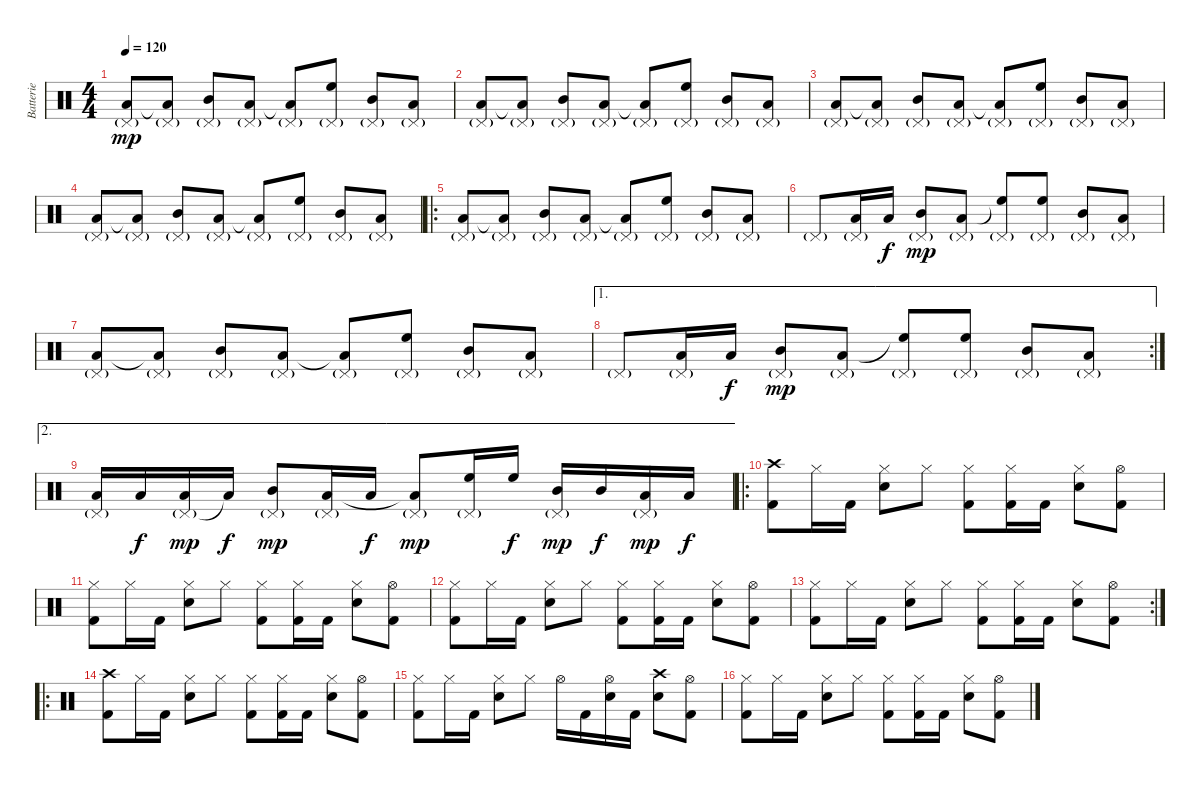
\track ("Batterie" "Batterie") {instrument percussion}
\staff {score}
\articulation defaults
\ts (4 4)
\tempo 120
\clef neutral
\ks c
("Pedal Hi-Hat (hit)"{g} "Low Tom (hit)").8{dy mp} ("Pedal Hi-Hat (hit)"{g} "Low Tom (hit)"{t}).8 ("Pedal Hi-Hat (hit)"{g} "Mid Tom (hit)").8 ("Pedal Hi-Hat (hit)"{g} "Low Tom (hit)").8 ("Pedal Hi-Hat (hit)"{g} "Low Tom (hit)"{t}).8 ("Pedal Hi-Hat (hit)"{g} "High Floor Tom (hit)").8 ("Pedal Hi-Hat (hit)"{g} "Mid Tom (hit)").8 ("Pedal Hi-Hat (hit)"{g} "Low Tom (hit)").8 |
("Pedal Hi-Hat (hit)"{g} "Low Tom (hit)").8 ("Pedal Hi-Hat (hit)"{g} "Low Tom (hit)"{t}).8 ("Pedal Hi-Hat (hit)"{g} "Mid Tom (hit)").8 ("Pedal Hi-Hat (hit)"{g} "Low Tom (hit)").8 ("Pedal Hi-Hat (hit)"{g} "Low Tom (hit)"{t}).8 ("Pedal Hi-Hat (hit)"{g} "High Floor Tom (hit)").8 ("Pedal Hi-Hat (hit)"{g} "Mid Tom (hit)").8 ("Pedal Hi-Hat (hit)"{g} "Low Tom (hit)").8 |
("Pedal Hi-Hat (hit)"{g} "Low Tom (hit)").8 ("Pedal Hi-Hat (hit)"{g} "Low Tom (hit)"{t}).8 ("Pedal Hi-Hat (hit)"{g} "Mid Tom (hit)").8 ("Pedal Hi-Hat (hit)"{g} "Low Tom (hit)").8 ("Pedal Hi-Hat (hit)"{g} "Low Tom (hit)"{t}).8 ("Pedal Hi-Hat (hit)"{g} "High Floor Tom (hit)").8 ("Pedal Hi-Hat (hit)"{g} "Mid Tom (hit)").8 ("Pedal Hi-Hat (hit)"{g} "Low Tom (hit)").8 |
("Pedal Hi-Hat (hit)"{g} "Low Tom (hit)").8 ("Pedal Hi-Hat (hit)"{g} "Low Tom (hit)"{t}).8 ("Pedal Hi-Hat (hit)"{g} "Mid Tom (hit)").8 ("Pedal Hi-Hat (hit)"{g} "Low Tom (hit)").8 ("Pedal Hi-Hat (hit)"{g} "Low Tom (hit)"{t}).8 ("Pedal Hi-Hat (hit)"{g} "High Floor Tom (hit)").8 ("Pedal Hi-Hat (hit)"{g} "Mid Tom (hit)").8 ("Pedal Hi-Hat (hit)"{g} "Low Tom (hit)").8 |
\ro
("Pedal Hi-Hat (hit)"{g} "Low Tom (hit)").8 ("Pedal Hi-Hat (hit)"{g} "Low Tom (hit)"{t}).8 ("Pedal Hi-Hat (hit)"{g} "Mid Tom (hit)").8 ("Pedal Hi-Hat (hit)"{g} "Low Tom (hit)").8 ("Pedal Hi-Hat (hit)"{g} "Low Tom (hit)"{t}).8 ("Pedal Hi-Hat (hit)"{g} "High Floor Tom (hit)").8 ("Pedal Hi-Hat (hit)"{g} "Mid Tom (hit)").8 ("Pedal Hi-Hat (hit)"{g} "Low Tom (hit)").8 |
"Pedal Hi-Hat (hit)"{g}.8 ("Pedal Hi-Hat (hit)"{g} "Low Tom (hit)").16 "Low Tom (hit)".16{dy f} ("Pedal Hi-Hat (hit)"{g} "Mid Tom (hit)").8{dy mp} ("Pedal Hi-Hat (hit)"{g} "Low Tom (hit)").8 ("Pedal Hi-Hat (hit)"{g} "High Floor Tom (hit)"{t}).8 ("Pedal Hi-Hat (hit)"{g} "High Floor Tom (hit)").8 ("Pedal Hi-Hat (hit)"{g} "Mid Tom (hit)").8 ("Pedal Hi-Hat (hit)"{g} "Low Tom (hit)").8 |
("Pedal Hi-Hat (hit)"{g} "Low Tom (hit)").8 ("Pedal Hi-Hat (hit)"{g} "Low Tom (hit)"{t}).8 ("Pedal Hi-Hat (hit)"{g} "Mid Tom (hit)").8 ("Pedal Hi-Hat (hit)"{g} "Low Tom (hit)").8 ("Pedal Hi-Hat (hit)"{g} "Low Tom (hit)"{t}).8 ("Pedal Hi-Hat (hit)"{g} "High Floor Tom (hit)").8 ("Pedal Hi-Hat (hit)"{g} "Mid Tom (hit)").8 ("Pedal Hi-Hat (hit)"{g} "Low Tom (hit)").8 |
\ae 1
\rc 2 "Pedal Hi-Hat (hit)"{g}.8
("Pedal Hi-Hat (hit)"{g} "Low Tom (hit)").16 "Low Tom (hit)".16{dy f} ("Pedal Hi-Hat (hit)"{g} "Mid Tom (hit)").8{dy mp} ("Pedal Hi-Hat (hit)"{g} "Low Tom (hit)").8 ("Pedal Hi-Hat (hit)"{g} "High Floor Tom (hit)"{t}).8 ("Pedal Hi-Hat (hit)"{g} "High Floor Tom (hit)").8 ("Pedal Hi-Hat (hit)"{g} "Mid Tom (hit)").8 ("Pedal Hi-Hat (hit)"{g} "Low Tom (hit)").8 |
\ae 2
("Pedal Hi-Hat (hit)"{g} "Low Tom (hit)").16 "Low Tom (hit)".16{dy f} ("Pedal Hi-Hat (hit)"{g} "Low Tom (hit)").16{dy mp} "Low Tom (hit)"{t}.16{dy f} ("Pedal Hi-Hat (hit)"{g} "Mid Tom (hit)").8{dy mp} ("Pedal Hi-Hat (hit)"{g} "Low Tom (hit)").16 "Low Tom (hit)".16{dy f} ("Pedal Hi-Hat (hit)"{g} "Low Tom (hit)"{t}).8{dy mp} ("Pedal Hi-Hat (hit)"{g} "High Floor Tom (hit)").16 "High Floor Tom (hit)".16{dy f} ("Pedal Hi-Hat (hit)"{g} "Mid Tom (hit)").16{dy mp} "Mid Tom (hit)".16{dy f} ("Pedal Hi-Hat (hit)"{g} "Low Tom (hit)").16{dy mp} "Low Tom (hit)".16{dy f} |
\ro
("Crash high (hit)" "Kick (hit) 2").8 "Hi-Hat (closed)".16 "Kick (hit) 2".16 ("Hi-Hat (closed)" "Snare (hit) 2").8 "Hi-Hat (closed)".8 ("Hi-Hat (closed)" "Kick (hit) 2").8 ("Hi-Hat (closed)" "Kick (hit) 2").16 "Kick (hit) 2".16 ("Hi-Hat (closed)" "Snare (hit) 2").8 ("Hi-Hat (open)" "Kick (hit) 2").8 |
("Hi-Hat (closed)" "Kick (hit) 2").8 "Hi-Hat (closed)".16 "Kick (hit) 2".16 ("Hi-Hat (closed)" "Snare (hit) 2").8 "Hi-Hat (closed)".8 ("Hi-Hat (closed)" "Kick (hit) 2").8 ("Hi-Hat (closed)" "Kick (hit) 2").16 "Kick (hit) 2".16 ("Hi-Hat (closed)" "Snare (hit) 2").8 ("Hi-Hat (open)" "Kick (hit) 2").8 |
("Hi-Hat (closed)" "Kick (hit) 2").8 "Hi-Hat (closed)".16 "Kick (hit) 2".16 ("Hi-Hat (closed)" "Snare (hit) 2").8 "Hi-Hat (closed)".8 ("Hi-Hat (closed)" "Kick (hit) 2").8 ("Hi-Hat (closed)" "Kick (hit) 2").16 "Kick (hit) 2".16 ("Hi-Hat (closed)" "Snare (hit) 2").8 ("Hi-Hat (open)" "Kick (hit) 2").8 |
\rc 2
("Hi-Hat (closed)" "Kick (hit) 2").8 "Hi-Hat (closed)".16 "Kick (hit) 2".16 ("Hi-Hat (closed)" "Snare (hit) 2").8 "Hi-Hat (closed)".8 ("Hi-Hat (closed)" "Kick (hit) 2").8 ("Hi-Hat (closed)" "Kick (hit) 2").16 "Kick (hit) 2".16 ("Hi-Hat (closed)" "Snare (hit) 2").8 ("Hi-Hat (open)" "Kick (hit) 2").8 |
\ro
("Crash high (hit)" "Kick (hit) 2").8 "Hi-Hat (closed)".16 "Kick (hit) 2".16 ("Hi-Hat (closed)" "Snare (hit) 2").8 "Hi-Hat (closed)".8 ("Hi-Hat (closed)" "Kick (hit) 2").8 ("Hi-Hat (closed)" "Kick (hit) 2").16 "Kick (hit) 2".16 ("Hi-Hat (closed)" "Snare (hit) 2").8 ("Hi-Hat (open)" "Kick (hit) 2").8 |
("Hi-Hat (closed)" "Kick (hit) 2").8 "Hi-Hat (closed)".16 "Kick (hit) 2".16 ("Hi-Hat (closed)" "Snare (hit) 2").8 "Hi-Hat (closed)".8 "Hi-Hat (open)".16 "Kick (hit) 2".16 ("Hi-Hat (open)" "Snare (hit) 2").16 "Kick (hit) 2".16 ("Crash high (hit)" "Snare (hit) 2").8 ("Hi-Hat (open)" "Kick (hit) 2").8 |
("Hi-Hat (closed)" "Kick (hit) 2").8 "Hi-Hat (closed)".16 "Kick (hit) 2".16 ("Hi-Hat (closed)" "Snare (hit) 2").8 "Hi-Hat (closed)".8 ("Hi-Hat (closed)" "Kick (hit) 2").8 ("Hi-Hat (closed)" "Kick (hit) 2").16 "Kick (hit) 2".16 ("Hi-Hat (closed)" "Snare (hit) 2").8 ("Hi-Hat (open)" "Kick (hit) 2").8
